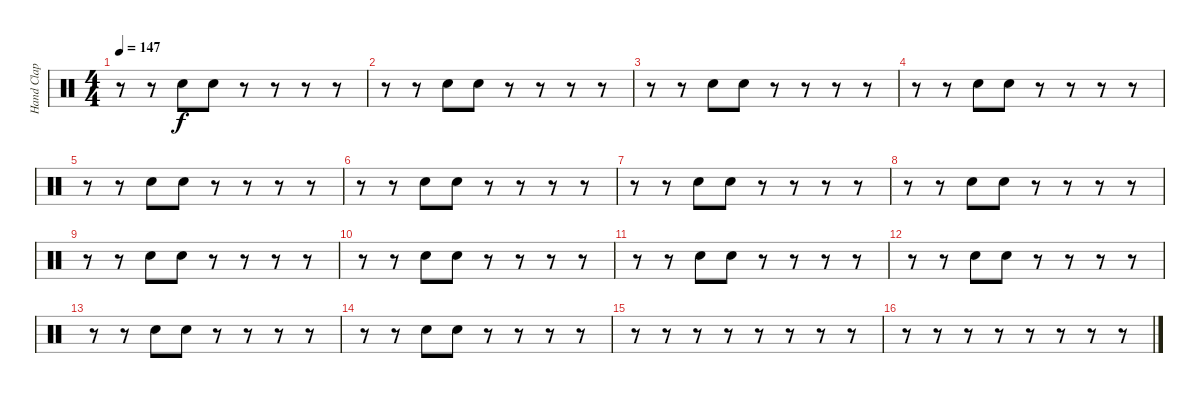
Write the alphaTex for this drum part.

\track ("Hand Clap" "Hand Clap") {instrument percussion}
\staff {score}
\articulation defaults
\ts (4 4)
\tempo 147
\clef neutral
\ks c
r.8{dy f} r.8 "Hand Clap (hit)".8 "Hand Clap (hit)".8 r.8 r.8 r.8 r.8 |
r.8 r.8 "Hand Clap (hit)".8 "Hand Clap (hit)".8 r.8 r.8 r.8 r.8 |
r.8 r.8 "Hand Clap (hit)".8 "Hand Clap (hit)".8 r.8 r.8 r.8 r.8 |
r.8 r.8 "Hand Clap (hit)".8 "Hand Clap (hit)".8 r.8 r.8 r.8 r.8 |
r.8 r.8 "Hand Clap (hit)".8 "Hand Clap (hit)".8 r.8 r.8 r.8 r.8 |
r.8 r.8 "Hand Clap (hit)".8 "Hand Clap (hit)".8 r.8 r.8 r.8 r.8 |
r.8 r.8 "Hand Clap (hit)".8 "Hand Clap (hit)".8 r.8 r.8 r.8 r.8 |
r.8 r.8 "Hand Clap (hit)".8 "Hand Clap (hit)".8 r.8 r.8 r.8 r.8 |
r.8 r.8 "Hand Clap (hit)".8 "Hand Clap (hit)".8 r.8 r.8 r.8 r.8 |
r.8 r.8 "Hand Clap (hit)".8 "Hand Clap (hit)".8 r.8 r.8 r.8 r.8 |
r.8 r.8 "Hand Clap (hit)".8 "Hand Clap (hit)".8 r.8 r.8 r.8 r.8 |
r.8 r.8 "Hand Clap (hit)".8 "Hand Clap (hit)".8 r.8 r.8 r.8 r.8 |
r.8 r.8 "Hand Clap (hit)".8 "Hand Clap (hit)".8 r.8 r.8 r.8 r.8 |
r.8 r.8 "Hand Clap (hit)".8 "Hand Clap (hit)".8 r.8 r.8 r.8 r.8 |
r.8 r.8 r.8 r.8 r.8 r.8 r.8 r.8 |
r.8 r.8 r.8 r.8 r.8 r.8 r.8 r.8
